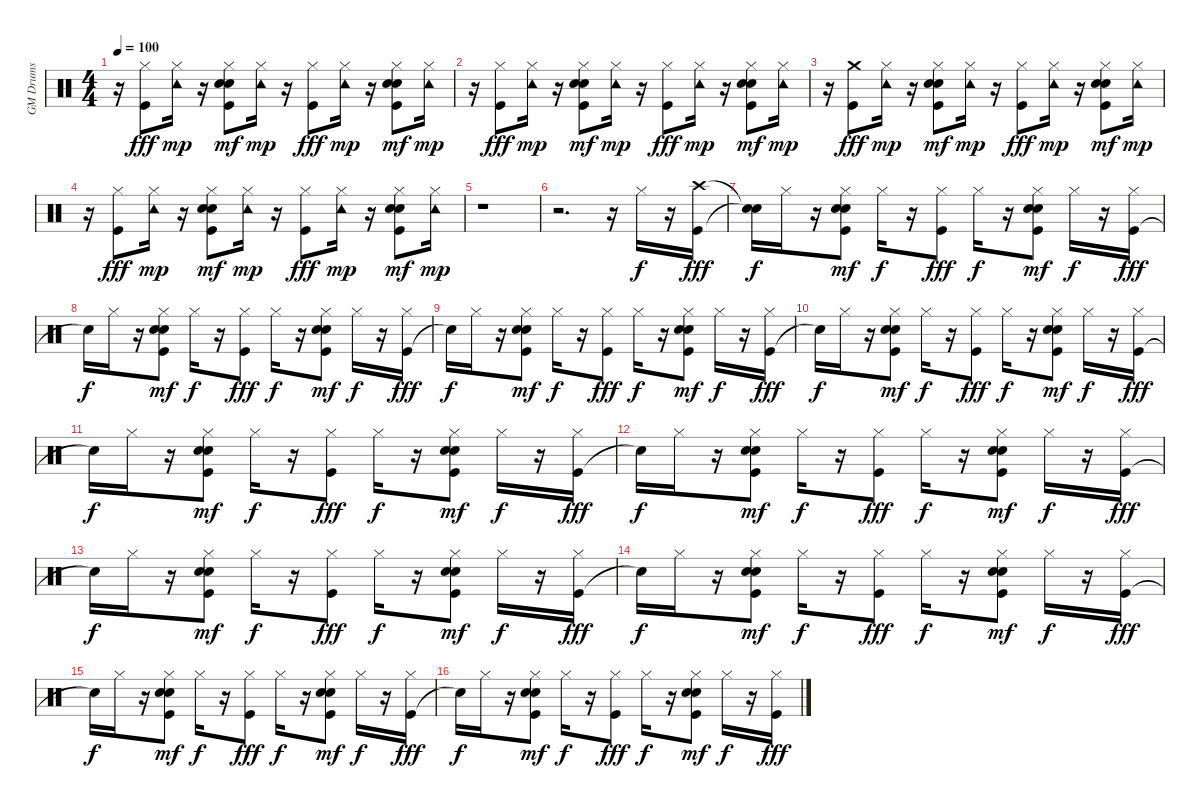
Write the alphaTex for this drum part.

\track ("GM Drums" "GM Drums") {instrument percussion}
\staff {score}
\articulation defaults
\ts (4 4)
\tempo 100
\clef neutral
\ks c
r.16{dy mp} ("Kick (hit)" "Hi-Hat (closed)").8{dy fff} ("Hi-Hat (closed)" "Tambourine (hit)").16{dy mp} r.16 ("Kick (hit)" "Snare (hit) 2" "Hand Clap (hit)" "Hi-Hat (closed)").8{dy mf} ("Hi-Hat (closed)" "Tambourine (hit)").16{dy mp} r.16 ("Kick (hit)" "Hi-Hat (closed)").8{dy fff} ("Hi-Hat (closed)" "Tambourine (hit)").16{dy mp} r.16 ("Kick (hit)" "Snare (hit) 2" "Hand Clap (hit)" "Hi-Hat (closed)").8{dy mf} ("Hi-Hat (closed)" "Tambourine (hit)").16{dy mp} |
r.16 ("Kick (hit)" "Hi-Hat (closed)").8{dy fff} ("Hi-Hat (closed)" "Tambourine (hit)").16{dy mp} r.16 ("Kick (hit)" "Snare (hit) 2" "Hand Clap (hit)" "Hi-Hat (closed)").8{dy mf} ("Hi-Hat (closed)" "Tambourine (hit)").16{dy mp} r.16 ("Kick (hit)" "Hi-Hat (closed)").8{dy fff} ("Hi-Hat (closed)" "Tambourine (hit)").16{dy mp} r.16 ("Kick (hit)" "Snare (hit) 2" "Hand Clap (hit)" "Hi-Hat (closed)").8{dy mf} ("Hi-Hat (closed)" "Tambourine (hit)").16{dy mp} |
r.16 ("Kick (hit)" "Crash medium (hit)").8{dy fff} ("Hi-Hat (closed)" "Tambourine (hit)").16{dy mp} r.16 ("Kick (hit)" "Snare (hit) 2" "Hand Clap (hit)" "Hi-Hat (closed)").8{dy mf} ("Hi-Hat (closed)" "Tambourine (hit)").16{dy mp} r.16 ("Kick (hit)" "Hi-Hat (closed)").8{dy fff} ("Hi-Hat (closed)" "Tambourine (hit)").16{dy mp} r.16 ("Kick (hit)" "Snare (hit) 2" "Hand Clap (hit)" "Hi-Hat (closed)").8{dy mf} ("Hi-Hat (closed)" "Tambourine (hit)").16{dy mp} |
r.16 ("Kick (hit)" "Hi-Hat (closed)").8{dy fff} ("Hi-Hat (closed)" "Tambourine (hit)").16{dy mp} r.16 ("Kick (hit)" "Snare (hit) 2" "Hand Clap (hit)" "Hi-Hat (closed)").8{dy mf} ("Hi-Hat (closed)" "Tambourine (hit)").16{dy mp} r.16 ("Kick (hit)" "Hi-Hat (closed)").8{dy fff} ("Hi-Hat (closed)" "Tambourine (hit)").16{dy mp} r.16 ("Kick (hit)" "Snare (hit) 2" "Hand Clap (hit)" "Hi-Hat (closed)").8{dy mf} ("Hi-Hat (closed)" "Tambourine (hit)").16{dy mp} |
r.1 |
r.2{d} r.16 "Hi-Hat (closed)".16{dy f} r.16 ("Kick (hit)" "Crash high (hit)").16{dy fff} |
("Snare (hit)"{t} "Snare (hit)"{t}).16{dy f} "Hi-Hat (closed)".16 r.16 ("Kick (hit)" "Snare (hit) 2" "Hand Clap (hit)" "Hi-Hat (closed)").8{dy mf} "Hi-Hat (closed)".16{dy f} r.16 ("Kick (hit)" "Hi-Hat (closed)").8{dy fff} "Hi-Hat (closed)".16{dy f} r.16 ("Kick (hit)" "Snare (hit) 2" "Hand Clap (hit)" "Hi-Hat (closed)").8{dy mf} "Hi-Hat (closed)".16{dy f} r.16 ("Kick (hit)" "Hi-Hat (closed)").16{dy fff} |
"Snare (hit)"{t}.16{dy f} "Hi-Hat (closed)".16 r.16 ("Kick (hit)" "Snare (hit) 2" "Hand Clap (hit)" "Hi-Hat (closed)").8{dy mf} "Hi-Hat (closed)".16{dy f} r.16 ("Kick (hit)" "Hi-Hat (closed)").8{dy fff} "Hi-Hat (closed)".16{dy f} r.16 ("Kick (hit)" "Snare (hit) 2" "Hand Clap (hit)" "Hi-Hat (closed)").8{dy mf} "Hi-Hat (closed)".16{dy f} r.16 ("Kick (hit)" "Hi-Hat (closed)").16{dy fff} |
"Snare (hit)"{t}.16{dy f} "Hi-Hat (closed)".16 r.16 ("Kick (hit)" "Snare (hit) 2" "Hand Clap (hit)" "Hi-Hat (closed)").8{dy mf} "Hi-Hat (closed)".16{dy f} r.16 ("Kick (hit)" "Hi-Hat (closed)").8{dy fff} "Hi-Hat (closed)".16{dy f} r.16 ("Kick (hit)" "Snare (hit) 2" "Hand Clap (hit)" "Hi-Hat (closed)").8{dy mf} "Hi-Hat (closed)".16{dy f} r.16 ("Kick (hit)" "Hi-Hat (closed)").16{dy fff} |
"Snare (hit)"{t}.16{dy f} "Hi-Hat (closed)".16 r.16 ("Kick (hit)" "Snare (hit) 2" "Hand Clap (hit)" "Hi-Hat (closed)").8{dy mf} "Hi-Hat (closed)".16{dy f} r.16 ("Kick (hit)" "Hi-Hat (closed)").8{dy fff} "Hi-Hat (closed)".16{dy f} r.16 ("Kick (hit)" "Snare (hit) 2" "Hand Clap (hit)" "Hi-Hat (closed)").8{dy mf} "Hi-Hat (closed)".16{dy f} r.16 ("Kick (hit)" "Hi-Hat (closed)").16{dy fff} |
"Snare (hit)"{t}.16{dy f} "Hi-Hat (closed)".16 r.16 ("Kick (hit)" "Snare (hit) 2" "Hand Clap (hit)" "Hi-Hat (closed)").8{dy mf} "Hi-Hat (closed)".16{dy f} r.16 ("Kick (hit)" "Hi-Hat (closed)").8{dy fff} "Hi-Hat (closed)".16{dy f} r.16 ("Kick (hit)" "Snare (hit) 2" "Hand Clap (hit)" "Hi-Hat (closed)").8{dy mf} "Hi-Hat (closed)".16{dy f} r.16 ("Kick (hit)" "Hi-Hat (closed)").16{dy fff} |
"Snare (hit)"{t}.16{dy f} "Hi-Hat (closed)".16 r.16 ("Kick (hit)" "Snare (hit) 2" "Hand Clap (hit)" "Hi-Hat (closed)").8{dy mf} "Hi-Hat (closed)".16{dy f} r.16 ("Kick (hit)" "Hi-Hat (closed)").8{dy fff} "Hi-Hat (closed)".16{dy f} r.16 ("Kick (hit)" "Snare (hit) 2" "Hand Clap (hit)" "Hi-Hat (closed)").8{dy mf} "Hi-Hat (closed)".16{dy f} r.16 ("Kick (hit)" "Hi-Hat (closed)").16{dy fff} |
"Snare (hit)"{t}.16{dy f} "Hi-Hat (closed)".16 r.16 ("Kick (hit)" "Snare (hit) 2" "Hand Clap (hit)" "Hi-Hat (closed)").8{dy mf} "Hi-Hat (closed)".16{dy f} r.16 ("Kick (hit)" "Hi-Hat (closed)").8{dy fff} "Hi-Hat (closed)".16{dy f} r.16 ("Kick (hit)" "Snare (hit) 2" "Hand Clap (hit)" "Hi-Hat (closed)").8{dy mf} "Hi-Hat (closed)".16{dy f} r.16 ("Kick (hit)" "Hi-Hat (closed)").16{dy fff} |
"Snare (hit)"{t}.16{dy f} "Hi-Hat (closed)".16 r.16 ("Kick (hit)" "Snare (hit) 2" "Hand Clap (hit)" "Hi-Hat (closed)").8{dy mf} "Hi-Hat (closed)".16{dy f} r.16 ("Kick (hit)" "Hi-Hat (closed)").8{dy fff} "Hi-Hat (closed)".16{dy f} r.16 ("Kick (hit)" "Snare (hit) 2" "Hand Clap (hit)" "Hi-Hat (closed)").8{dy mf} "Hi-Hat (closed)".16{dy f} r.16 ("Kick (hit)" "Hi-Hat (closed)").16{dy fff} |
"Snare (hit)"{t}.16{dy f} "Hi-Hat (closed)".16 r.16 ("Kick (hit)" "Snare (hit) 2" "Hand Clap (hit)" "Hi-Hat (closed)").8{dy mf} "Hi-Hat (closed)".16{dy f} r.16 ("Kick (hit)" "Hi-Hat (closed)").8{dy fff} "Hi-Hat (closed)".16{dy f} r.16 ("Kick (hit)" "Snare (hit) 2" "Hand Clap (hit)" "Hi-Hat (closed)").8{dy mf} "Hi-Hat (closed)".16{dy f} r.16 ("Kick (hit)" "Hi-Hat (closed)").16{dy fff} |
"Snare (hit)"{t}.16{dy f} "Hi-Hat (closed)".16 r.16 ("Kick (hit)" "Snare (hit) 2" "Hand Clap (hit)" "Hi-Hat (closed)").8{dy mf} "Hi-Hat (closed)".16{dy f} r.16 ("Kick (hit)" "Hi-Hat (closed)").8{dy fff} "Hi-Hat (closed)".16{dy f} r.16 ("Kick (hit)" "Snare (hit) 2" "Hand Clap (hit)" "Hi-Hat (closed)").8{dy mf} "Hi-Hat (closed)".16{dy f} r.16 ("Kick (hit)" "Hi-Hat (closed)").16{dy fff}
